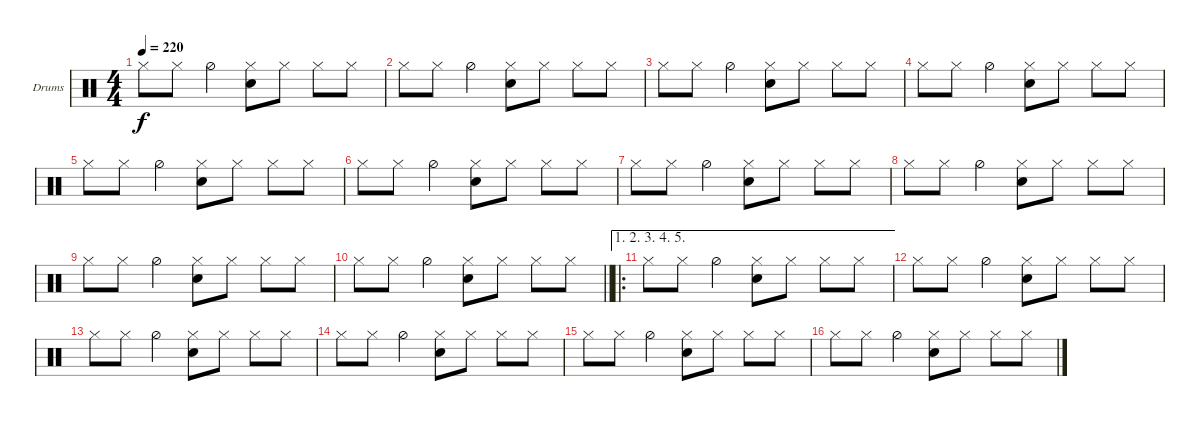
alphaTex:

\bracketExtendMode groupsimilarinstruments
\firstSystemTrackNameOrientation horizontal
\otherSystemsTrackNameOrientation horizontal
\track ("Drums" "Drums") {instrument percussion}
\staff {score}
\articulation defaults
\ts (4 4)
\tempo 220
\clef neutral
\scale
0.333333
\ks c "Hi-Hat (closed)".8{dy f} "Hi-Hat (closed)".8 "Hi-Hat (half)".4
("Hi-Hat (closed)" "Snare (hit) 2").8 "Hi-Hat (closed)".8 "Hi-Hat (closed)".8 "Hi-Hat (closed)".8 |
\scale
0.333333 "Hi-Hat (closed)".8 "Hi-Hat (closed)".8 "Hi-Hat (half)".4 ("Hi-Hat (closed)" "Snare (hit) 2").8 "Hi-Hat (closed)".8 "Hi-Hat (closed)".8 "Hi-Hat (closed)".8 |
\scale
0.333333 "Hi-Hat (closed)".8 "Hi-Hat (closed)".8 "Hi-Hat (half)".4 ("Hi-Hat (closed)" "Snare (hit) 2").8 "Hi-Hat (closed)".8 "Hi-Hat (closed)".8 "Hi-Hat (closed)".8 |
\scale
0.333333 "Hi-Hat (closed)".8 "Hi-Hat (closed)".8 "Hi-Hat (half)".4 ("Hi-Hat (closed)" "Snare (hit) 2").8 "Hi-Hat (closed)".8 "Hi-Hat (closed)".8 "Hi-Hat (closed)".8 |
\scale
0.333333 "Hi-Hat (closed)".8 "Hi-Hat (closed)".8 "Hi-Hat (half)".4 ("Hi-Hat (closed)" "Snare (hit) 2").8 "Hi-Hat (closed)".8 "Hi-Hat (closed)".8 "Hi-Hat (closed)".8 |
\scale
0.333333 "Hi-Hat (closed)".8 "Hi-Hat (closed)".8 "Hi-Hat (half)".4 ("Hi-Hat (closed)" "Snare (hit) 2").8 "Hi-Hat (closed)".8 "Hi-Hat (closed)".8 "Hi-Hat (closed)".8 |
\scale
0.333333 "Hi-Hat (closed)".8 "Hi-Hat (closed)".8 "Hi-Hat (half)".4 ("Hi-Hat (closed)" "Snare (hit) 2").8 "Hi-Hat (closed)".8 "Hi-Hat (closed)".8 "Hi-Hat (closed)".8 |
\scale
0.333333 "Hi-Hat (closed)".8 "Hi-Hat (closed)".8 "Hi-Hat (half)".4 ("Hi-Hat (closed)" "Snare (hit) 2").8 "Hi-Hat (closed)".8 "Hi-Hat (closed)".8 "Hi-Hat (closed)".8 |
\scale
0.333333 "Hi-Hat (closed)".8 "Hi-Hat (closed)".8 "Hi-Hat (half)".4 ("Hi-Hat (closed)" "Snare (hit) 2").8 "Hi-Hat (closed)".8 "Hi-Hat (closed)".8 "Hi-Hat (closed)".8 |
\scale
0.333333
\barLineRight lightlight "Hi-Hat (closed)".8 "Hi-Hat (closed)".8 "Hi-Hat (half)".4
("Hi-Hat (closed)" "Snare (hit) 2").8 "Hi-Hat (closed)".8 "Hi-Hat (closed)".8 "Hi-Hat (closed)".8 |
\ae (1 2 3 4 5)
\ro
\scale
0.377049 "Hi-Hat (closed)".8 "Hi-Hat (closed)".8 "Hi-Hat (half)".4 ("Hi-Hat (closed)" "Snare (hit) 2").8 "Hi-Hat (closed)".8 "Hi-Hat (closed)".8 "Hi-Hat (closed)".8 |
\scale
0.311475 "Hi-Hat (closed)".8 "Hi-Hat (closed)".8 "Hi-Hat (half)".4 ("Hi-Hat (closed)" "Snare (hit) 2").8 "Hi-Hat (closed)".8 "Hi-Hat (closed)".8 "Hi-Hat (closed)".8 |
\scale
0.311475 "Hi-Hat (closed)".8 "Hi-Hat (closed)".8 "Hi-Hat (half)".4 ("Hi-Hat (closed)" "Snare (hit) 2").8 "Hi-Hat (closed)".8 "Hi-Hat (closed)".8 "Hi-Hat (closed)".8 |
\scale
0.333333 "Hi-Hat (closed)".8 "Hi-Hat (closed)".8 "Hi-Hat (half)".4 ("Hi-Hat (closed)" "Snare (hit) 2").8 "Hi-Hat (closed)".8 "Hi-Hat (closed)".8 "Hi-Hat (closed)".8 |
\scale
0.333333 "Hi-Hat (closed)".8 "Hi-Hat (closed)".8 "Hi-Hat (half)".4 ("Hi-Hat (closed)" "Snare (hit) 2").8 "Hi-Hat (closed)".8 "Hi-Hat (closed)".8 "Hi-Hat (closed)".8 |
\scale
0.333333 "Hi-Hat (closed)".8 "Hi-Hat (closed)".8 "Hi-Hat (half)".4 ("Hi-Hat (closed)" "Snare (hit) 2").8 "Hi-Hat (closed)".8 "Hi-Hat (closed)".8 "Hi-Hat (closed)".8
